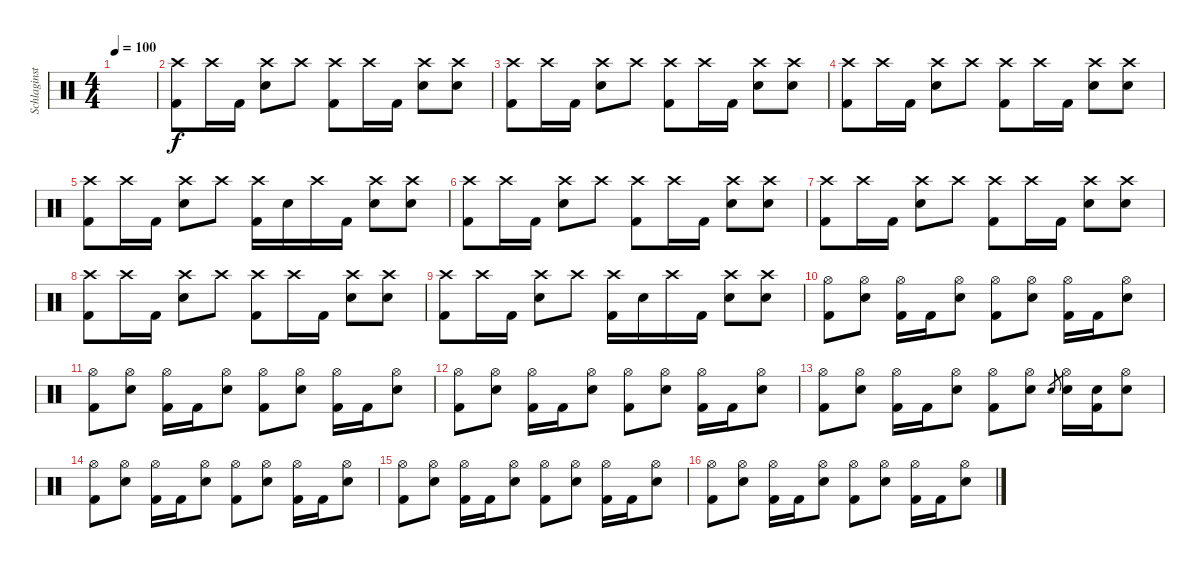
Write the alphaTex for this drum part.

\track ("Schlaginstrumente - Auswahl" "Schlaginst") {instrument percussion}
\staff {score}
\articulation defaults
\ts (4 4)
\tempo 100
\clef neutral
\ks c
|
("Crash high (hit)" "Kick (hit) 2").8 "Crash high (hit)".16 "Kick (hit) 2".16 ("Crash high (hit)" "Snare (hit) 2").8 "Crash high (hit)".8 ("Crash high (hit)" "Kick (hit) 2").8 "Crash high (hit)".16 "Kick (hit) 2".16 ("Crash high (hit)" "Snare (hit) 2").8 ("Crash high (hit)" "Snare (hit) 2").8 |
("Crash high (hit)" "Kick (hit) 2").8 "Crash high (hit)".16 "Kick (hit) 2".16 ("Crash high (hit)" "Snare (hit) 2").8 "Crash high (hit)".8 ("Crash high (hit)" "Kick (hit) 2").8 "Crash high (hit)".16 "Kick (hit) 2".16 ("Crash high (hit)" "Snare (hit) 2").8 ("Crash high (hit)" "Snare (hit) 2").8 |
("Crash high (hit)" "Kick (hit) 2").8 "Crash high (hit)".16 "Kick (hit) 2".16 ("Crash high (hit)" "Snare (hit) 2").8 "Crash high (hit)".8 ("Crash high (hit)" "Kick (hit) 2").8 "Crash high (hit)".16 "Kick (hit) 2".16 ("Crash high (hit)" "Snare (hit) 2").8 ("Crash high (hit)" "Snare (hit) 2").8 |
("Crash high (hit)" "Kick (hit) 2").8 "Crash high (hit)".16 "Kick (hit) 2".16 ("Crash high (hit)" "Snare (hit) 2").8 "Crash high (hit)".8 ("Crash high (hit)" "Kick (hit) 2").16 "Snare (hit) 2".16 "Crash high (hit)".16 "Kick (hit) 2".16 ("Crash high (hit)" "Snare (hit) 2").8 ("Crash high (hit)" "Snare (hit) 2").8 |
("Crash high (hit)" "Kick (hit) 2").8 "Crash high (hit)".16 "Kick (hit) 2".16 ("Crash high (hit)" "Snare (hit) 2").8 "Crash high (hit)".8 ("Crash high (hit)" "Kick (hit) 2").8 "Crash high (hit)".16 "Kick (hit) 2".16 ("Crash high (hit)" "Snare (hit) 2").8 ("Crash high (hit)" "Snare (hit) 2").8 |
("Crash high (hit)" "Kick (hit) 2").8 "Crash high (hit)".16 "Kick (hit) 2".16 ("Crash high (hit)" "Snare (hit) 2").8 "Crash high (hit)".8 ("Crash high (hit)" "Kick (hit) 2").8 "Crash high (hit)".16 "Kick (hit) 2".16 ("Crash high (hit)" "Snare (hit) 2").8 ("Crash high (hit)" "Snare (hit) 2").8 |
("Crash high (hit)" "Kick (hit) 2").8 "Crash high (hit)".16 "Kick (hit) 2".16 ("Crash high (hit)" "Snare (hit) 2").8 "Crash high (hit)".8 ("Crash high (hit)" "Kick (hit) 2").8 "Crash high (hit)".16 "Kick (hit) 2".16 ("Crash high (hit)" "Snare (hit) 2").8 ("Crash high (hit)" "Snare (hit) 2").8 |
("Crash high (hit)" "Kick (hit) 2").8 "Crash high (hit)".16 "Kick (hit) 2".16 ("Crash high (hit)" "Snare (hit) 2").8 "Crash high (hit)".8 ("Crash high (hit)" "Kick (hit) 2").16 "Snare (hit) 2".16 "Crash high (hit)".16 "Kick (hit) 2".16 ("Crash high (hit)" "Snare (hit) 2").8 ("Crash high (hit)" "Snare (hit) 2").8 |
("Hi-Hat (open)" "Kick (hit) 2").8 ("Hi-Hat (open)" "Snare (hit) 2").8 ("Hi-Hat (open)" "Kick (hit) 2").16 "Kick (hit) 2".16 ("Hi-Hat (open)" "Snare (hit) 2").8 ("Hi-Hat (open)" "Kick (hit) 2").8 ("Hi-Hat (open)" "Snare (hit) 2").8 ("Hi-Hat (open)" "Kick (hit) 2").16 "Kick (hit) 2".16 ("Hi-Hat (open)" "Snare (hit) 2").8 |
("Hi-Hat (open)" "Kick (hit) 2").8 ("Hi-Hat (open)" "Snare (hit) 2").8 ("Hi-Hat (open)" "Kick (hit) 2").16 "Kick (hit) 2".16 ("Hi-Hat (open)" "Snare (hit) 2").8 ("Hi-Hat (open)" "Kick (hit) 2").8 ("Hi-Hat (open)" "Snare (hit) 2").8 ("Hi-Hat (open)" "Kick (hit) 2").16 "Kick (hit) 2".16 ("Hi-Hat (open)" "Snare (hit) 2").8 |
("Hi-Hat (open)" "Kick (hit) 2").8 ("Hi-Hat (open)" "Snare (hit) 2").8 ("Hi-Hat (open)" "Kick (hit) 2").16 "Kick (hit) 2".16 ("Hi-Hat (open)" "Snare (hit) 2").8 ("Hi-Hat (open)" "Kick (hit) 2").8 ("Hi-Hat (open)" "Snare (hit) 2").8 ("Hi-Hat (open)" "Kick (hit) 2").16 "Kick (hit) 2".16 ("Hi-Hat (open)" "Snare (hit) 2").8 |
("Hi-Hat (open)" "Kick (hit) 2").8 ("Hi-Hat (open)" "Snare (hit) 2").8 ("Hi-Hat (open)" "Kick (hit) 2").16 "Kick (hit) 2".16 ("Hi-Hat (open)" "Snare (hit) 2").8 ("Hi-Hat (open)" "Kick (hit) 2").8 ("Hi-Hat (open)" "Snare (hit) 2").8 "Snare (hit) 2".8{gr} ("Hi-Hat (open)" "Snare (hit) 2").16 ("Snare (hit) 2" "Kick (hit) 2").16 ("Hi-Hat (open)" "Snare (hit) 2").8 |
("Hi-Hat (open)" "Kick (hit) 2").8 ("Hi-Hat (open)" "Snare (hit) 2").8 ("Hi-Hat (open)" "Kick (hit) 2").16 "Kick (hit) 2".16 ("Hi-Hat (open)" "Snare (hit) 2").8 ("Hi-Hat (open)" "Kick (hit) 2").8 ("Hi-Hat (open)" "Snare (hit) 2").8 ("Hi-Hat (open)" "Kick (hit) 2").16 "Kick (hit) 2".16 ("Hi-Hat (open)" "Snare (hit) 2").8 |
("Hi-Hat (open)" "Kick (hit) 2").8 ("Hi-Hat (open)" "Snare (hit) 2").8 ("Hi-Hat (open)" "Kick (hit) 2").16 "Kick (hit) 2".16 ("Hi-Hat (open)" "Snare (hit) 2").8 ("Hi-Hat (open)" "Kick (hit) 2").8 ("Hi-Hat (open)" "Snare (hit) 2").8 ("Hi-Hat (open)" "Kick (hit) 2").16 "Kick (hit) 2".16 ("Hi-Hat (open)" "Snare (hit) 2").8 |
("Hi-Hat (open)" "Kick (hit) 2").8 ("Hi-Hat (open)" "Snare (hit) 2").8 ("Hi-Hat (open)" "Kick (hit) 2").16 "Kick (hit) 2".16 ("Hi-Hat (open)" "Snare (hit) 2").8 ("Hi-Hat (open)" "Kick (hit) 2").8 ("Hi-Hat (open)" "Snare (hit) 2").8 ("Hi-Hat (open)" "Kick (hit) 2").16 "Kick (hit) 2".16 ("Hi-Hat (open)" "Snare (hit) 2").8
